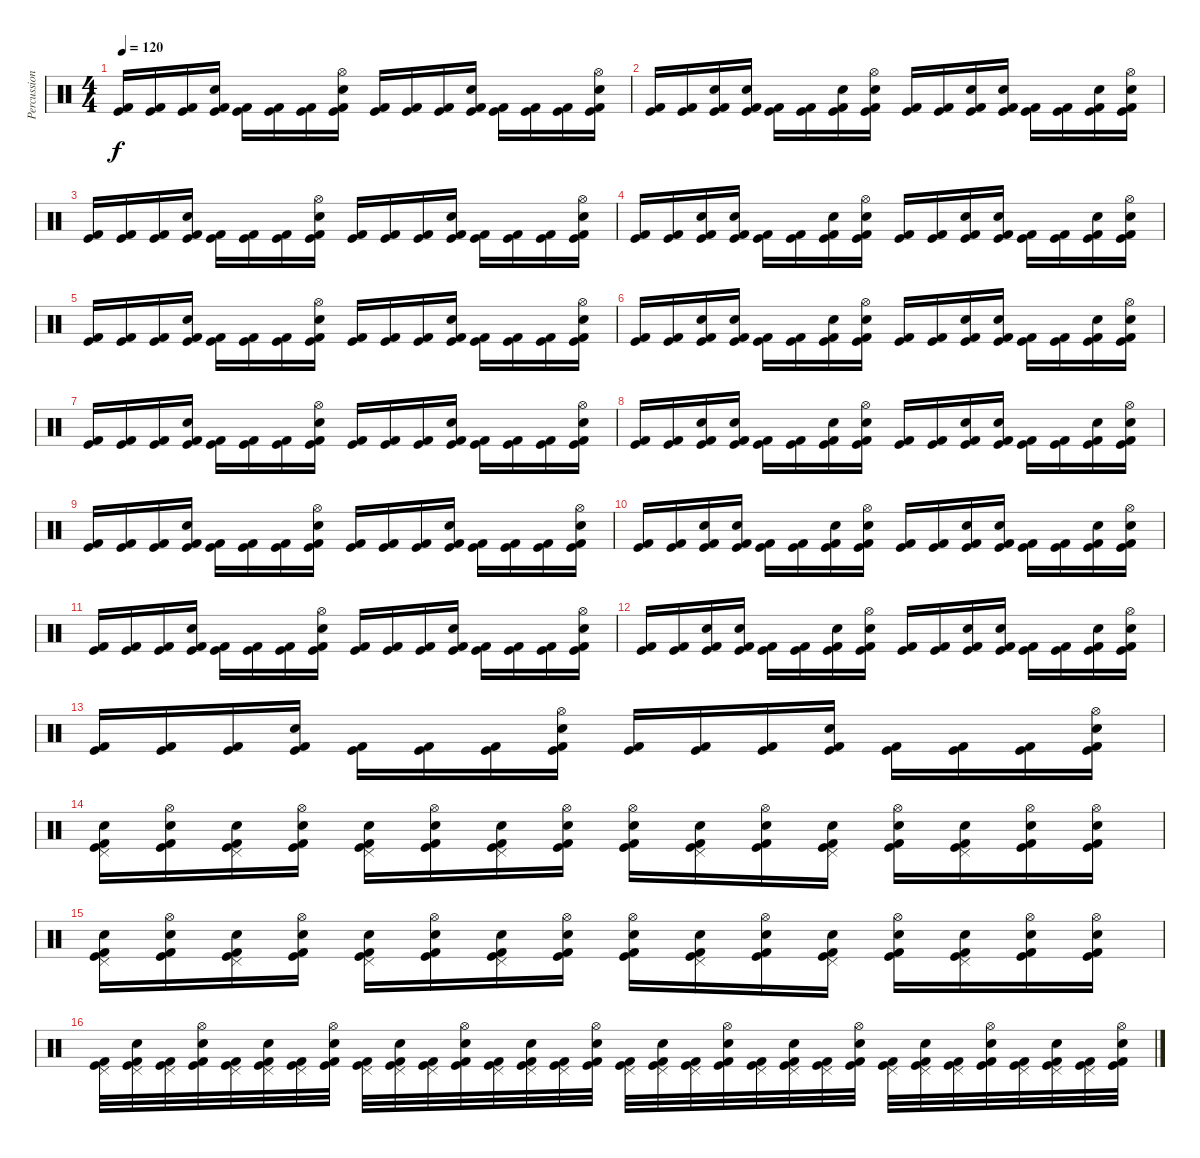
\track ("Percussions" "Percussion") {instrument percussion}
\staff {score}
\articulation defaults
\ts (4 4)
\tempo 120
\clef neutral
\ks c
("Kick (hit)" "Kick (hit) 2").16{dy f} ("Kick (hit)" "Kick (hit) 2").16 ("Kick (hit)" "Kick (hit) 2").16 ("Electric Snare (hit)" "Kick (hit)" "Kick (hit) 2").16 ("Kick (hit)" "Kick (hit) 2").16 ("Kick (hit)" "Kick (hit) 2").16 ("Kick (hit)" "Kick (hit) 2").16 ("Hi-Hat (open)" "Electric Snare (hit)" "Kick (hit)" "Kick (hit) 2").16 ("Kick (hit)" "Kick (hit) 2").16 ("Kick (hit)" "Kick (hit) 2").16 ("Kick (hit)" "Kick (hit) 2").16 ("Electric Snare (hit)" "Kick (hit)" "Kick (hit) 2").16 ("Kick (hit)" "Kick (hit) 2").16 ("Kick (hit)" "Kick (hit) 2").16 ("Kick (hit)" "Kick (hit) 2").16 ("Hi-Hat (open)" "Electric Snare (hit)" "Kick (hit)" "Kick (hit) 2").16 |
("Kick (hit)" "Kick (hit) 2").16 ("Kick (hit)" "Kick (hit) 2").16 ("Electric Snare (hit)" "Kick (hit)" "Kick (hit) 2").16 ("Electric Snare (hit)" "Kick (hit)" "Kick (hit) 2").16 ("Kick (hit)" "Kick (hit) 2").16 ("Kick (hit)" "Kick (hit) 2").16 ("Electric Snare (hit)" "Kick (hit)" "Kick (hit) 2").16 ("Hi-Hat (open)" "Electric Snare (hit)" "Kick (hit)" "Kick (hit) 2").16 ("Kick (hit)" "Kick (hit) 2").16 ("Kick (hit)" "Kick (hit) 2").16 ("Electric Snare (hit)" "Kick (hit)" "Kick (hit) 2").16 ("Electric Snare (hit)" "Kick (hit)" "Kick (hit) 2").16 ("Kick (hit)" "Kick (hit) 2").16 ("Kick (hit)" "Kick (hit) 2").16 ("Electric Snare (hit)" "Kick (hit)" "Kick (hit) 2").16 ("Hi-Hat (open)" "Electric Snare (hit)" "Kick (hit)" "Kick (hit) 2").16 |
("Kick (hit)" "Kick (hit) 2").16 ("Kick (hit)" "Kick (hit) 2").16 ("Kick (hit)" "Kick (hit) 2").16 ("Electric Snare (hit)" "Kick (hit)" "Kick (hit) 2").16 ("Kick (hit)" "Kick (hit) 2").16 ("Kick (hit)" "Kick (hit) 2").16 ("Kick (hit)" "Kick (hit) 2").16 ("Hi-Hat (open)" "Electric Snare (hit)" "Kick (hit)" "Kick (hit) 2").16 ("Kick (hit)" "Kick (hit) 2").16 ("Kick (hit)" "Kick (hit) 2").16 ("Kick (hit)" "Kick (hit) 2").16 ("Electric Snare (hit)" "Kick (hit)" "Kick (hit) 2").16 ("Kick (hit)" "Kick (hit) 2").16 ("Kick (hit)" "Kick (hit) 2").16 ("Kick (hit)" "Kick (hit) 2").16 ("Hi-Hat (open)" "Electric Snare (hit)" "Kick (hit)" "Kick (hit) 2").16 |
("Kick (hit)" "Kick (hit) 2").16 ("Kick (hit)" "Kick (hit) 2").16 ("Electric Snare (hit)" "Kick (hit)" "Kick (hit) 2").16 ("Electric Snare (hit)" "Kick (hit)" "Kick (hit) 2").16 ("Kick (hit)" "Kick (hit) 2").16 ("Kick (hit)" "Kick (hit) 2").16 ("Electric Snare (hit)" "Kick (hit)" "Kick (hit) 2").16 ("Hi-Hat (open)" "Electric Snare (hit)" "Kick (hit)" "Kick (hit) 2").16 ("Kick (hit)" "Kick (hit) 2").16 ("Kick (hit)" "Kick (hit) 2").16 ("Electric Snare (hit)" "Kick (hit)" "Kick (hit) 2").16 ("Electric Snare (hit)" "Kick (hit)" "Kick (hit) 2").16 ("Kick (hit)" "Kick (hit) 2").16 ("Kick (hit)" "Kick (hit) 2").16 ("Electric Snare (hit)" "Kick (hit)" "Kick (hit) 2").16 ("Hi-Hat (open)" "Electric Snare (hit)" "Kick (hit)" "Kick (hit) 2").16 |
("Kick (hit)" "Kick (hit) 2").16 ("Kick (hit)" "Kick (hit) 2").16 ("Kick (hit)" "Kick (hit) 2").16 ("Electric Snare (hit)" "Kick (hit)" "Kick (hit) 2").16 ("Kick (hit)" "Kick (hit) 2").16 ("Kick (hit)" "Kick (hit) 2").16 ("Kick (hit)" "Kick (hit) 2").16 ("Hi-Hat (open)" "Electric Snare (hit)" "Kick (hit)" "Kick (hit) 2").16 ("Kick (hit)" "Kick (hit) 2").16 ("Kick (hit)" "Kick (hit) 2").16 ("Kick (hit)" "Kick (hit) 2").16 ("Electric Snare (hit)" "Kick (hit)" "Kick (hit) 2").16 ("Kick (hit)" "Kick (hit) 2").16 ("Kick (hit)" "Kick (hit) 2").16 ("Kick (hit)" "Kick (hit) 2").16 ("Hi-Hat (open)" "Electric Snare (hit)" "Kick (hit)" "Kick (hit) 2").16 |
("Kick (hit)" "Kick (hit) 2").16 ("Kick (hit)" "Kick (hit) 2").16 ("Electric Snare (hit)" "Kick (hit)" "Kick (hit) 2").16 ("Electric Snare (hit)" "Kick (hit)" "Kick (hit) 2").16 ("Kick (hit)" "Kick (hit) 2").16 ("Kick (hit)" "Kick (hit) 2").16 ("Electric Snare (hit)" "Kick (hit)" "Kick (hit) 2").16 ("Hi-Hat (open)" "Electric Snare (hit)" "Kick (hit)" "Kick (hit) 2").16 ("Kick (hit)" "Kick (hit) 2").16 ("Kick (hit)" "Kick (hit) 2").16 ("Electric Snare (hit)" "Kick (hit)" "Kick (hit) 2").16 ("Electric Snare (hit)" "Kick (hit)" "Kick (hit) 2").16 ("Kick (hit)" "Kick (hit) 2").16 ("Kick (hit)" "Kick (hit) 2").16 ("Electric Snare (hit)" "Kick (hit)" "Kick (hit) 2").16 ("Hi-Hat (open)" "Electric Snare (hit)" "Kick (hit)" "Kick (hit) 2").16 |
("Kick (hit)" "Kick (hit) 2").16 ("Kick (hit)" "Kick (hit) 2").16 ("Kick (hit)" "Kick (hit) 2").16 ("Electric Snare (hit)" "Kick (hit)" "Kick (hit) 2").16 ("Kick (hit)" "Kick (hit) 2").16 ("Kick (hit)" "Kick (hit) 2").16 ("Kick (hit)" "Kick (hit) 2").16 ("Hi-Hat (open)" "Electric Snare (hit)" "Kick (hit)" "Kick (hit) 2").16 ("Kick (hit)" "Kick (hit) 2").16 ("Kick (hit)" "Kick (hit) 2").16 ("Kick (hit)" "Kick (hit) 2").16 ("Electric Snare (hit)" "Kick (hit)" "Kick (hit) 2").16 ("Kick (hit)" "Kick (hit) 2").16 ("Kick (hit)" "Kick (hit) 2").16 ("Kick (hit)" "Kick (hit) 2").16 ("Hi-Hat (open)" "Electric Snare (hit)" "Kick (hit)" "Kick (hit) 2").16 |
("Kick (hit)" "Kick (hit) 2").16 ("Kick (hit)" "Kick (hit) 2").16 ("Electric Snare (hit)" "Kick (hit)" "Kick (hit) 2").16 ("Electric Snare (hit)" "Kick (hit)" "Kick (hit) 2").16 ("Kick (hit)" "Kick (hit) 2").16 ("Kick (hit)" "Kick (hit) 2").16 ("Electric Snare (hit)" "Kick (hit)" "Kick (hit) 2").16 ("Hi-Hat (open)" "Electric Snare (hit)" "Kick (hit)" "Kick (hit) 2").16 ("Kick (hit)" "Kick (hit) 2").16 ("Kick (hit)" "Kick (hit) 2").16 ("Electric Snare (hit)" "Kick (hit)" "Kick (hit) 2").16 ("Electric Snare (hit)" "Kick (hit)" "Kick (hit) 2").16 ("Kick (hit)" "Kick (hit) 2").16 ("Kick (hit)" "Kick (hit) 2").16 ("Electric Snare (hit)" "Kick (hit)" "Kick (hit) 2").16 ("Hi-Hat (open)" "Electric Snare (hit)" "Kick (hit)" "Kick (hit) 2").16 |
("Kick (hit)" "Kick (hit) 2").16 ("Kick (hit)" "Kick (hit) 2").16 ("Kick (hit)" "Kick (hit) 2").16 ("Electric Snare (hit)" "Kick (hit)" "Kick (hit) 2").16 ("Kick (hit)" "Kick (hit) 2").16 ("Kick (hit)" "Kick (hit) 2").16 ("Kick (hit)" "Kick (hit) 2").16 ("Hi-Hat (open)" "Electric Snare (hit)" "Kick (hit)" "Kick (hit) 2").16 ("Kick (hit)" "Kick (hit) 2").16 ("Kick (hit)" "Kick (hit) 2").16 ("Kick (hit)" "Kick (hit) 2").16 ("Electric Snare (hit)" "Kick (hit)" "Kick (hit) 2").16 ("Kick (hit)" "Kick (hit) 2").16 ("Kick (hit)" "Kick (hit) 2").16 ("Kick (hit)" "Kick (hit) 2").16 ("Hi-Hat (open)" "Electric Snare (hit)" "Kick (hit)" "Kick (hit) 2").16 |
("Kick (hit)" "Kick (hit) 2").16 ("Kick (hit)" "Kick (hit) 2").16 ("Electric Snare (hit)" "Kick (hit)" "Kick (hit) 2").16 ("Electric Snare (hit)" "Kick (hit)" "Kick (hit) 2").16 ("Kick (hit)" "Kick (hit) 2").16 ("Kick (hit)" "Kick (hit) 2").16 ("Electric Snare (hit)" "Kick (hit)" "Kick (hit) 2").16 ("Hi-Hat (open)" "Electric Snare (hit)" "Kick (hit)" "Kick (hit) 2").16 ("Kick (hit)" "Kick (hit) 2").16 ("Kick (hit)" "Kick (hit) 2").16 ("Electric Snare (hit)" "Kick (hit)" "Kick (hit) 2").16 ("Electric Snare (hit)" "Kick (hit)" "Kick (hit) 2").16 ("Kick (hit)" "Kick (hit) 2").16 ("Kick (hit)" "Kick (hit) 2").16 ("Electric Snare (hit)" "Kick (hit)" "Kick (hit) 2").16 ("Hi-Hat (open)" "Electric Snare (hit)" "Kick (hit)" "Kick (hit) 2").16 |
("Kick (hit)" "Kick (hit) 2").16 ("Kick (hit)" "Kick (hit) 2").16 ("Kick (hit)" "Kick (hit) 2").16 ("Electric Snare (hit)" "Kick (hit)" "Kick (hit) 2").16 ("Kick (hit)" "Kick (hit) 2").16 ("Kick (hit)" "Kick (hit) 2").16 ("Kick (hit)" "Kick (hit) 2").16 ("Hi-Hat (open)" "Electric Snare (hit)" "Kick (hit)" "Kick (hit) 2").16 ("Kick (hit)" "Kick (hit) 2").16 ("Kick (hit)" "Kick (hit) 2").16 ("Kick (hit)" "Kick (hit) 2").16 ("Electric Snare (hit)" "Kick (hit)" "Kick (hit) 2").16 ("Kick (hit)" "Kick (hit) 2").16 ("Kick (hit)" "Kick (hit) 2").16 ("Kick (hit)" "Kick (hit) 2").16 ("Hi-Hat (open)" "Electric Snare (hit)" "Kick (hit)" "Kick (hit) 2").16 |
("Kick (hit)" "Kick (hit) 2").16 ("Kick (hit)" "Kick (hit) 2").16 ("Electric Snare (hit)" "Kick (hit)" "Kick (hit) 2").16 ("Electric Snare (hit)" "Kick (hit)" "Kick (hit) 2").16 ("Kick (hit)" "Kick (hit) 2").16 ("Kick (hit)" "Kick (hit) 2").16 ("Electric Snare (hit)" "Kick (hit)" "Kick (hit) 2").16 ("Hi-Hat (open)" "Electric Snare (hit)" "Kick (hit)" "Kick (hit) 2").16 ("Kick (hit)" "Kick (hit) 2").16 ("Kick (hit)" "Kick (hit) 2").16 ("Electric Snare (hit)" "Kick (hit)" "Kick (hit) 2").16 ("Electric Snare (hit)" "Kick (hit)" "Kick (hit) 2").16 ("Kick (hit)" "Kick (hit) 2").16 ("Kick (hit)" "Kick (hit) 2").16 ("Electric Snare (hit)" "Kick (hit)" "Kick (hit) 2").16 ("Hi-Hat (open)" "Electric Snare (hit)" "Kick (hit)" "Kick (hit) 2").16 |
("Kick (hit)" "Kick (hit) 2").16 ("Kick (hit)" "Kick (hit) 2").16 ("Kick (hit)" "Kick (hit) 2").16 ("Electric Snare (hit)" "Kick (hit)" "Kick (hit) 2").16 ("Kick (hit)" "Kick (hit) 2").16 ("Kick (hit)" "Kick (hit) 2").16 ("Kick (hit)" "Kick (hit) 2").16 ("Hi-Hat (open)" "Electric Snare (hit)" "Kick (hit)" "Kick (hit) 2").16 ("Kick (hit)" "Kick (hit) 2").16 ("Kick (hit)" "Kick (hit) 2").16 ("Kick (hit)" "Kick (hit) 2").16 ("Electric Snare (hit)" "Kick (hit)" "Kick (hit) 2").16 ("Kick (hit)" "Kick (hit) 2").16 ("Kick (hit)" "Kick (hit) 2").16 ("Kick (hit)" "Kick (hit) 2").16 ("Hi-Hat (open)" "Electric Snare (hit)" "Kick (hit)" "Kick (hit) 2").16 |
("Pedal Hi-Hat (hit)" "Electric Snare (hit)" "Kick (hit)" "Kick (hit) 2").16 ("Hi-Hat (open)" "Electric Snare (hit)" "Kick (hit)" "Kick (hit) 2").16 ("Pedal Hi-Hat (hit)" "Electric Snare (hit)" "Kick (hit)" "Kick (hit) 2").16 ("Hi-Hat (open)" "Electric Snare (hit)" "Kick (hit)" "Kick (hit) 2").16 ("Pedal Hi-Hat (hit)" "Electric Snare (hit)" "Kick (hit)" "Kick (hit) 2").16 ("Hi-Hat (open)" "Electric Snare (hit)" "Kick (hit)" "Kick (hit) 2").16 ("Pedal Hi-Hat (hit)" "Electric Snare (hit)" "Kick (hit)" "Kick (hit) 2").16 ("Hi-Hat (open)" "Electric Snare (hit)" "Kick (hit)" "Kick (hit) 2").16 ("Hi-Hat (open)" "Electric Snare (hit)" "Kick (hit)" "Kick (hit) 2").16 ("Pedal Hi-Hat (hit)" "Electric Snare (hit)" "Kick (hit)" "Kick (hit) 2").16 ("Hi-Hat (open)" "Electric Snare (hit)" "Kick (hit)" "Kick (hit) 2").16 ("Pedal Hi-Hat (hit)" "Electric Snare (hit)" "Kick (hit)" "Kick (hit) 2").16 ("Hi-Hat (open)" "Electric Snare (hit)" "Kick (hit)" "Kick (hit) 2").16 ("Pedal Hi-Hat (hit)" "Electric Snare (hit)" "Kick (hit)" "Kick (hit) 2").16 ("Hi-Hat (open)" "Electric Snare (hit)" "Kick (hit)" "Kick (hit) 2").16 ("Hi-Hat (open)" "Electric Snare (hit)" "Kick (hit)" "Kick (hit) 2").16 |
("Pedal Hi-Hat (hit)" "Electric Snare (hit)" "Kick (hit)" "Kick (hit) 2").16 ("Hi-Hat (open)" "Electric Snare (hit)" "Kick (hit)" "Kick (hit) 2").16 ("Pedal Hi-Hat (hit)" "Electric Snare (hit)" "Kick (hit)" "Kick (hit) 2").16 ("Hi-Hat (open)" "Electric Snare (hit)" "Kick (hit)" "Kick (hit) 2").16 ("Pedal Hi-Hat (hit)" "Electric Snare (hit)" "Kick (hit)" "Kick (hit) 2").16 ("Hi-Hat (open)" "Electric Snare (hit)" "Kick (hit)" "Kick (hit) 2").16 ("Pedal Hi-Hat (hit)" "Electric Snare (hit)" "Kick (hit)" "Kick (hit) 2").16 ("Hi-Hat (open)" "Electric Snare (hit)" "Kick (hit)" "Kick (hit) 2").16 ("Hi-Hat (open)" "Electric Snare (hit)" "Kick (hit)" "Kick (hit) 2").16 ("Pedal Hi-Hat (hit)" "Electric Snare (hit)" "Kick (hit)" "Kick (hit) 2").16 ("Hi-Hat (open)" "Electric Snare (hit)" "Kick (hit)" "Kick (hit) 2").16 ("Pedal Hi-Hat (hit)" "Electric Snare (hit)" "Kick (hit)" "Kick (hit) 2").16 ("Hi-Hat (open)" "Electric Snare (hit)" "Kick (hit)" "Kick (hit) 2").16 ("Pedal Hi-Hat (hit)" "Electric Snare (hit)" "Kick (hit)" "Kick (hit) 2").16 ("Hi-Hat (open)" "Electric Snare (hit)" "Kick (hit)" "Kick (hit) 2").16 ("Hi-Hat (open)" "Electric Snare (hit)" "Kick (hit)" "Kick (hit) 2").16 |
("Pedal Hi-Hat (hit)" "Kick (hit)" "Kick (hit) 2").32 ("Pedal Hi-Hat (hit)" "Electric Snare (hit)" "Kick (hit)" "Kick (hit) 2").32 ("Pedal Hi-Hat (hit)" "Kick (hit)" "Kick (hit) 2").32 ("Hi-Hat (open)" "Electric Snare (hit)" "Kick (hit)" "Kick (hit) 2").32 ("Pedal Hi-Hat (hit)" "Kick (hit)" "Kick (hit) 2").32 ("Pedal Hi-Hat (hit)" "Electric Snare (hit)" "Kick (hit)" "Kick (hit) 2").32 ("Pedal Hi-Hat (hit)" "Kick (hit)" "Kick (hit) 2").32 ("Hi-Hat (open)" "Electric Snare (hit)" "Kick (hit)" "Kick (hit) 2").32 ("Pedal Hi-Hat (hit)" "Kick (hit)" "Kick (hit) 2").32 ("Pedal Hi-Hat (hit)" "Electric Snare (hit)" "Kick (hit)" "Kick (hit) 2").32 ("Pedal Hi-Hat (hit)" "Kick (hit)" "Kick (hit) 2").32 ("Hi-Hat (open)" "Electric Snare (hit)" "Kick (hit)" "Kick (hit) 2").32 ("Pedal Hi-Hat (hit)" "Kick (hit)" "Kick (hit) 2").32 ("Pedal Hi-Hat (hit)" "Electric Snare (hit)" "Kick (hit)" "Kick (hit) 2").32 ("Pedal Hi-Hat (hit)" "Kick (hit)" "Kick (hit) 2").32 ("Hi-Hat (open)" "Electric Snare (hit)" "Kick (hit)" "Kick (hit) 2").32 ("Pedal Hi-Hat (hit)" "Kick (hit)" "Kick (hit) 2").32 ("Pedal Hi-Hat (hit)" "Electric Snare (hit)" "Kick (hit)" "Kick (hit) 2").32 ("Pedal Hi-Hat (hit)" "Kick (hit)" "Kick (hit) 2").32 ("Hi-Hat (open)" "Electric Snare (hit)" "Kick (hit)" "Kick (hit) 2").32 ("Pedal Hi-Hat (hit)" "Kick (hit)" "Kick (hit) 2").32 ("Pedal Hi-Hat (hit)" "Electric Snare (hit)" "Kick (hit)" "Kick (hit) 2").32 ("Pedal Hi-Hat (hit)" "Kick (hit)" "Kick (hit) 2").32 ("Hi-Hat (open)" "Electric Snare (hit)" "Kick (hit)" "Kick (hit) 2").32 ("Pedal Hi-Hat (hit)" "Kick (hit)" "Kick (hit) 2").32 ("Pedal Hi-Hat (hit)" "Electric Snare (hit)" "Kick (hit)" "Kick (hit) 2").32 ("Pedal Hi-Hat (hit)" "Kick (hit)" "Kick (hit) 2").32 ("Hi-Hat (open)" "Electric Snare (hit)" "Kick (hit)" "Kick (hit) 2").32 ("Pedal Hi-Hat (hit)" "Kick (hit)" "Kick (hit) 2").32 ("Pedal Hi-Hat (hit)" "Electric Snare (hit)" "Kick (hit)" "Kick (hit) 2").32 ("Pedal Hi-Hat (hit)" "Kick (hit)" "Kick (hit) 2").32 ("Hi-Hat (open)" "Electric Snare (hit)" "Kick (hit)" "Kick (hit) 2").32
